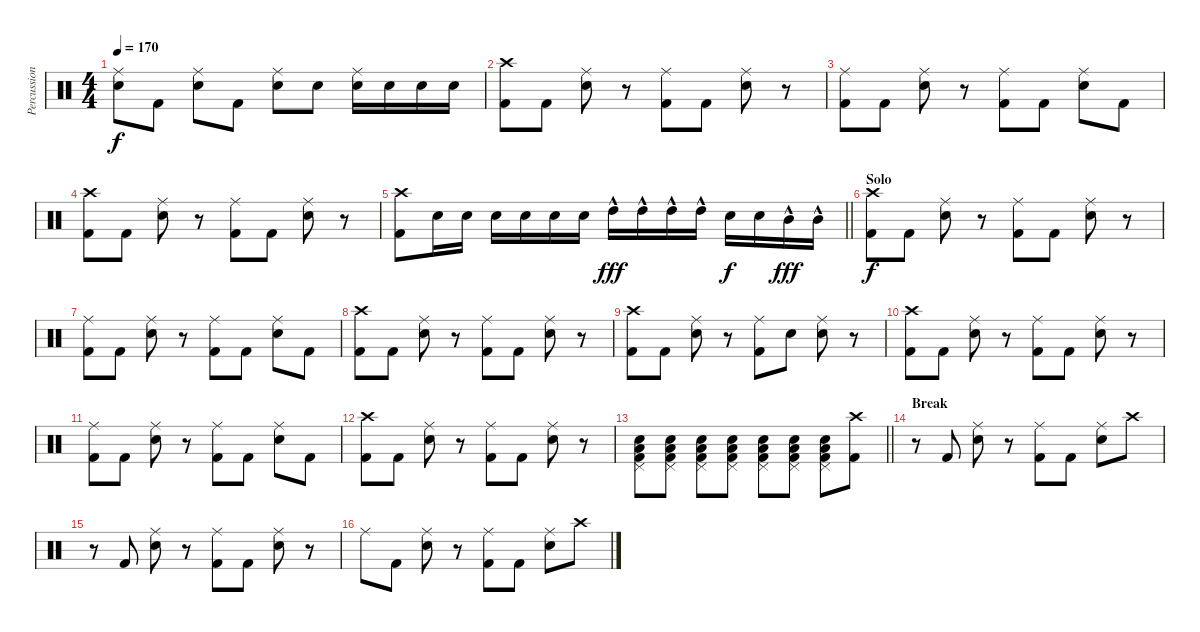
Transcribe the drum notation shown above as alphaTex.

\track ("Percussion" "Percussion") {instrument percussion}
\staff {score}
\articulation defaults
\ts (4 4)
\tempo 170
\clef neutral
\ks c
("Ride (middle)" "Electric Snare (hit)").8{dy f} "Kick (hit) 2".8 ("Ride (middle)" "Electric Snare (hit)").8 "Kick (hit) 2".8 ("Ride (middle)" "Electric Snare (hit)").8 "Electric Snare (hit)".8 ("Ride (middle)" "Electric Snare (hit)").16 "Electric Snare (hit)".16 "Electric Snare (hit)".16 "Electric Snare (hit)".16 |
("Crash high (hit)" "Kick (hit) 2").8 "Kick (hit) 2".8 ("Ride (middle)" "Electric Snare (hit)").8 r.8 ("Ride (middle)" "Kick (hit) 2").8 "Kick (hit) 2".8 ("Ride (middle)" "Electric Snare (hit)").8 r.8 |
("Ride (middle)" "Kick (hit) 2").8 "Kick (hit) 2".8 ("Ride (middle)" "Electric Snare (hit)").8 r.8 ("Ride (middle)" "Kick (hit) 2").8 "Kick (hit) 2".8 ("Ride (middle)" "Electric Snare (hit)").8 "Kick (hit) 2".8 |
("Crash high (hit)" "Kick (hit) 2").8 "Kick (hit) 2".8 ("Ride (middle)" "Electric Snare (hit)").8 r.8 ("Ride (middle)" "Kick (hit) 2").8 "Kick (hit) 2".8 ("Ride (middle)" "Electric Snare (hit)").8 r.8 |
\barLineRight lightlight
("Crash high (hit)" "Kick (hit) 2").8 "Electric Snare (hit)".16 "Electric Snare (hit)".16 "Electric Snare (hit)".16 "Electric Snare (hit)".16 "Electric Snare (hit)".16 "Electric Snare (hit)".16 "High Tom (hit)"{hac}.16{dy fff} "High Tom (hit)"{hac}.16 "High Tom (hit)"{hac}.16 "High Tom (hit)"{hac}.16 "Electric Snare (hit)".16{dy f} "Electric Snare (hit)".16 "Mid Tom (hit)"{hac}.16{dy fff} "Mid Tom (hit)"{hac}.16 |
\section ("" "Solo")
("Crash high (hit)" "Kick (hit) 2").8{dy f} "Kick (hit) 2".8 ("Ride (middle)" "Electric Snare (hit)").8 r.8 ("Ride (middle)" "Kick (hit) 2").8 "Kick (hit) 2".8 ("Ride (middle)" "Electric Snare (hit)").8 r.8 |
("Ride (middle)" "Kick (hit) 2").8 "Kick (hit) 2".8 ("Ride (middle)" "Electric Snare (hit)").8 r.8 ("Ride (middle)" "Kick (hit) 2").8 "Kick (hit) 2".8 ("Ride (middle)" "Electric Snare (hit)").8 "Kick (hit) 2".8 |
("Crash high (hit)" "Kick (hit) 2").8 "Kick (hit) 2".8 ("Ride (middle)" "Electric Snare (hit)").8 r.8 ("Ride (middle)" "Kick (hit) 2").8 "Kick (hit) 2".8 ("Ride (middle)" "Electric Snare (hit)").8 r.8 |
("Crash high (hit)" "Kick (hit) 2").8 "Kick (hit) 2".8 ("Ride (middle)" "Electric Snare (hit)").8 r.8 ("Ride (middle)" "Kick (hit) 2").8 "Electric Snare (hit)".8 ("Ride (middle)" "Electric Snare (hit)").8 r.8 |
("Crash high (hit)" "Kick (hit) 2").8 "Kick (hit) 2".8 ("Ride (middle)" "Electric Snare (hit)").8 r.8 ("Ride (middle)" "Kick (hit) 2").8 "Kick (hit) 2".8 ("Ride (middle)" "Electric Snare (hit)").8 r.8 |
("Ride (middle)" "Kick (hit) 2").8 "Kick (hit) 2".8 ("Ride (middle)" "Electric Snare (hit)").8 r.8 ("Ride (middle)" "Kick (hit) 2").8 "Kick (hit) 2".8 ("Ride (middle)" "Electric Snare (hit)").8 "Kick (hit) 2".8 |
("Crash high (hit)" "Kick (hit) 2").8 "Kick (hit) 2".8 ("Ride (middle)" "Electric Snare (hit)").8 r.8 ("Ride (middle)" "Kick (hit) 2").8 "Kick (hit) 2".8 ("Ride (middle)" "Electric Snare (hit)").8 r.8 |
\barLineRight lightlight
("Pedal Hi-Hat (hit)" "Low Floor Tom (hit)" "Electric Snare (hit)" "Kick (hit) 2").8 ("Pedal Hi-Hat (hit)" "Low Floor Tom (hit)" "Electric Snare (hit)" "Kick (hit) 2").8 ("Pedal Hi-Hat (hit)" "Low Floor Tom (hit)" "Electric Snare (hit)" "Kick (hit) 2").8 ("Pedal Hi-Hat (hit)" "Low Floor Tom (hit)" "Electric Snare (hit)" "Kick (hit) 2").8 ("Pedal Hi-Hat (hit)" "Low Floor Tom (hit)" "Electric Snare (hit)" "Kick (hit) 2").8 ("Pedal Hi-Hat (hit)" "Low Floor Tom (hit)" "Electric Snare (hit)" "Kick (hit) 2").8 ("Pedal Hi-Hat (hit)" "Low Floor Tom (hit)" "Electric Snare (hit)" "Kick (hit) 2").8 ("Crash high (hit)" "Kick (hit) 2").8 |
\section ("" "Break")
r.8 "Kick (hit) 2".8 ("Ride (middle)" "Electric Snare (hit)").8 r.8 ("Ride (middle)" "Kick (hit) 2").8 "Kick (hit) 2".8 ("Ride (middle)" "Electric Snare (hit)").8 "Crash high (hit)".8 |
r.8 "Kick (hit) 2".8 ("Ride (middle)" "Electric Snare (hit)").8 r.8 ("Ride (middle)" "Kick (hit) 2").8 "Kick (hit) 2".8 ("Ride (middle)" "Electric Snare (hit)").8 r.8 |
"Ride (middle)".8 "Kick (hit) 2".8 ("Ride (middle)" "Electric Snare (hit)").8 r.8 ("Ride (middle)" "Kick (hit) 2").8 "Kick (hit) 2".8 ("Ride (middle)" "Electric Snare (hit)").8 "Crash high (hit)".8
